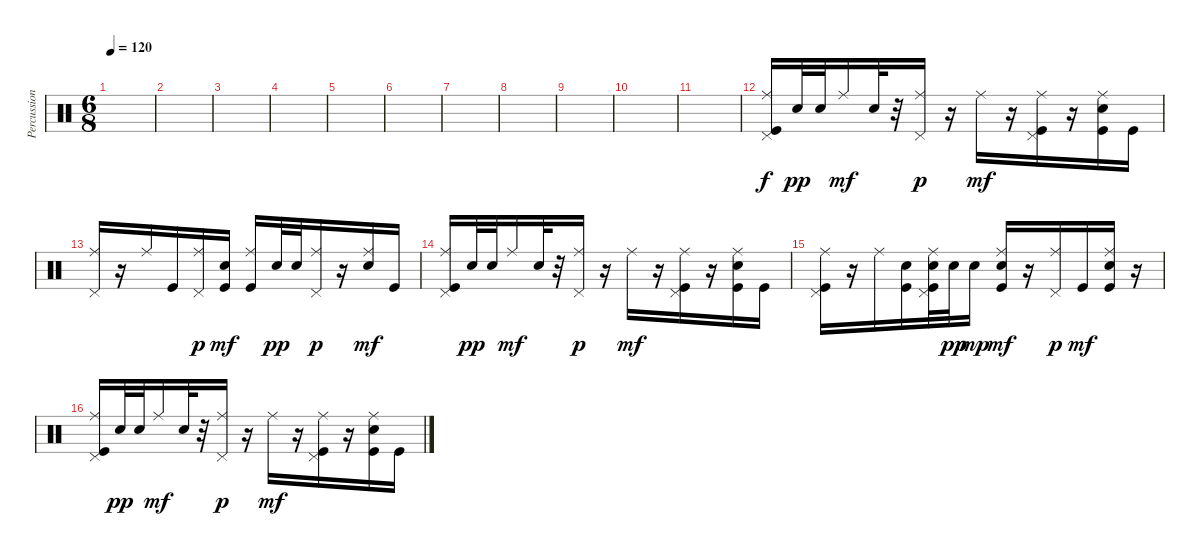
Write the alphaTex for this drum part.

\track ("Percussion" "Percussion") {instrument percussion}
\staff {score}
\articulation defaults
\ts (6 8)
\tempo 120
\clef neutral
\ks c
|
|
|
|
|
|
|
|
|
|
|
("Ride (middle)" "Pedal Hi-Hat (hit)" "Kick (hit)").16 "Snare (hit) 2".32{dy pp} "Snare (hit) 2".32 "Ride (middle)".16{dy mf} "Snare (hit) 2".32 r.32 ("Pedal Hi-Hat (hit)" "Ride (middle)").16{dy p} r.16 "Ride (middle)".16{dy mf} r.16 ("Pedal Hi-Hat (hit)" "Ride (middle)" "Kick (hit)").16 r.16 ("Ride (middle)" "Snare (hit) 2" "Kick (hit)").16 "Kick (hit)".16 |
("Ride (middle)" "Pedal Hi-Hat (hit)").16 r.16 "Ride (middle)".16 "Kick (hit)".16 ("Pedal Hi-Hat (hit)" "Ride (middle)").16{dy p} ("Snare (hit) 2" "Kick (hit)").16{dy mf} ("Ride (middle)" "Kick (hit)").16 "Snare (hit) 2".32{dy pp} "Snare (hit) 2".32 ("Pedal Hi-Hat (hit)" "Ride (middle)").16{dy p} r.16 ("Ride (middle)" "Snare (hit) 2").16{dy mf} "Kick (hit)".16 |
("Ride (middle)" "Pedal Hi-Hat (hit)" "Kick (hit)").16 "Snare (hit) 2".32{dy pp} "Snare (hit) 2".32 "Ride (middle)".16{dy mf} "Snare (hit) 2".32 r.32 ("Pedal Hi-Hat (hit)" "Ride (middle)").16{dy p} r.16 "Ride (middle)".16{dy mf} r.16 ("Pedal Hi-Hat (hit)" "Ride (middle)" "Kick (hit)").16 r.16 ("Ride (middle)" "Snare (hit) 2" "Kick (hit)").16 "Kick (hit)".16 |
("Ride (middle)" "Pedal Hi-Hat (hit)" "Kick (hit)").16 r.16 "Ride (middle)".16 ("Snare (hit) 2" "Kick (hit)").16 ("Pedal Hi-Hat (hit)" "Ride (middle)" "Snare (hit) 2" "Kick (hit)").32 "Snare (hit) 2".32{dy pp} "Snare (hit) 2".16{dy mp} ("Ride (middle)" "Snare (hit) 2" "Kick (hit)").16{dy mf} r.16 ("Pedal Hi-Hat (hit)" "Ride (middle)").16{dy p} "Kick (hit)".16{dy mf} ("Ride (middle)" "Snare (hit) 2" "Kick (hit)").16 r.16 |
("Ride (middle)" "Pedal Hi-Hat (hit)" "Kick (hit)").16 "Snare (hit) 2".32{dy pp} "Snare (hit) 2".32 "Ride (middle)".16{dy mf} "Snare (hit) 2".32 r.32 ("Pedal Hi-Hat (hit)" "Ride (middle)").16{dy p} r.16 "Ride (middle)".16{dy mf} r.16 ("Pedal Hi-Hat (hit)" "Ride (middle)" "Kick (hit)").16 r.16 ("Ride (middle)" "Snare (hit) 2" "Kick (hit)").16 "Kick (hit)".16
